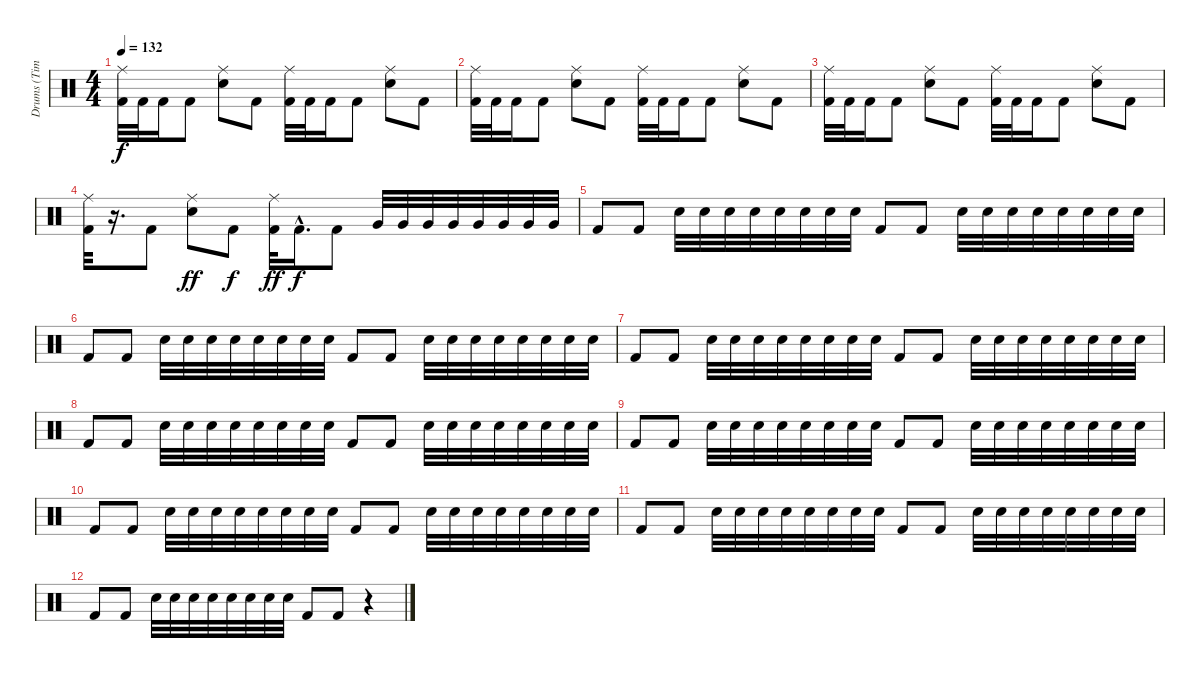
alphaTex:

\track ("Drums (Tim Alexander)" "Drums (Tim") {instrument percussion}
\staff {score}
\articulation defaults
\ts (4 4)
\tempo 132
\clef neutral
\ks c
("Ride (middle)" "Kick (hit) 2").32{dy f} "Kick (hit) 2".32 "Kick (hit) 2".16 "Kick (hit) 2".8 ("Ride (middle)" "Snare (hit) 2").8 "Kick (hit) 2".8 ("Ride (middle)" "Kick (hit) 2").32 "Kick (hit) 2".32 "Kick (hit) 2".16 "Kick (hit) 2".8 ("Ride (middle)" "Snare (hit) 2").8 "Kick (hit) 2".8 |
("Ride (middle)" "Kick (hit) 2").32 "Kick (hit) 2".32 "Kick (hit) 2".16 "Kick (hit) 2".8 ("Ride (middle)" "Snare (hit) 2").8 "Kick (hit) 2".8 ("Ride (middle)" "Kick (hit) 2").32 "Kick (hit) 2".32 "Kick (hit) 2".16 "Kick (hit) 2".8 ("Ride (middle)" "Snare (hit) 2").8 "Kick (hit) 2".8 |
("Ride (middle)" "Kick (hit) 2").32 "Kick (hit) 2".32 "Kick (hit) 2".16 "Kick (hit) 2".8 ("Ride (middle)" "Snare (hit) 2").8 "Kick (hit) 2".8 ("Ride (middle)" "Kick (hit) 2").32 "Kick (hit) 2".32 "Kick (hit) 2".16 "Kick (hit) 2".8 ("Ride (middle)" "Snare (hit) 2").8 "Kick (hit) 2".8 |
("Ride (middle)" "Kick (hit) 2").32 r.16{d} "Kick (hit) 2".8 ("Ride (middle)" "Snare (hit) 2").8{dy ff} "Kick (hit) 2".8{dy f} ("Ride (middle)" "Kick (hit) 2").32{dy ff} "Kick (hit) 2"{hac}.16{d dy f} "Kick (hit) 2".8 "Very Low Tom (hit)".32 "Very Low Tom (hit)".32 "Very Low Tom (hit)".32 "Very Low Tom (hit)".32 "Very Low Tom (hit)".32 "Very Low Tom (hit)".32 "Very Low Tom (hit)".32 "Very Low Tom (hit)".32 |
"Kick (hit) 2".8 "Kick (hit) 2".8 "Snare (hit) 2".32 "Snare (hit) 2".32 "Snare (hit) 2".32 "Snare (hit) 2".32 "Snare (hit) 2".32 "Snare (hit) 2".32 "Snare (hit) 2".32 "Snare (hit) 2".32 "Kick (hit) 2".8 "Kick (hit) 2".8 "Snare (hit) 2".32 "Snare (hit) 2".32 "Snare (hit) 2".32 "Snare (hit) 2".32 "Snare (hit) 2".32 "Snare (hit) 2".32 "Snare (hit) 2".32 "Snare (hit) 2".32 |
"Kick (hit) 2".8 "Kick (hit) 2".8 "Snare (hit) 2".32 "Snare (hit) 2".32 "Snare (hit) 2".32 "Snare (hit) 2".32 "Snare (hit) 2".32 "Snare (hit) 2".32 "Snare (hit) 2".32 "Snare (hit) 2".32 "Kick (hit) 2".8 "Kick (hit) 2".8 "Snare (hit) 2".32 "Snare (hit) 2".32 "Snare (hit) 2".32 "Snare (hit) 2".32 "Snare (hit) 2".32 "Snare (hit) 2".32 "Snare (hit) 2".32 "Snare (hit) 2".32 |
"Kick (hit) 2".8 "Kick (hit) 2".8 "Snare (hit) 2".32 "Snare (hit) 2".32 "Snare (hit) 2".32 "Snare (hit) 2".32 "Snare (hit) 2".32 "Snare (hit) 2".32 "Snare (hit) 2".32 "Snare (hit) 2".32 "Kick (hit) 2".8 "Kick (hit) 2".8 "Snare (hit) 2".32 "Snare (hit) 2".32 "Snare (hit) 2".32 "Snare (hit) 2".32 "Snare (hit) 2".32 "Snare (hit) 2".32 "Snare (hit) 2".32 "Snare (hit) 2".32 |
"Kick (hit) 2".8 "Kick (hit) 2".8 "Snare (hit) 2".32 "Snare (hit) 2".32 "Snare (hit) 2".32 "Snare (hit) 2".32 "Snare (hit) 2".32 "Snare (hit) 2".32 "Snare (hit) 2".32 "Snare (hit) 2".32 "Kick (hit) 2".8 "Kick (hit) 2".8 "Snare (hit) 2".32 "Snare (hit) 2".32 "Snare (hit) 2".32 "Snare (hit) 2".32 "Snare (hit) 2".32 "Snare (hit) 2".32 "Snare (hit) 2".32 "Snare (hit) 2".32 |
"Kick (hit) 2".8 "Kick (hit) 2".8 "Snare (hit) 2".32 "Snare (hit) 2".32 "Snare (hit) 2".32 "Snare (hit) 2".32 "Snare (hit) 2".32 "Snare (hit) 2".32 "Snare (hit) 2".32 "Snare (hit) 2".32 "Kick (hit) 2".8 "Kick (hit) 2".8 "Snare (hit) 2".32 "Snare (hit) 2".32 "Snare (hit) 2".32 "Snare (hit) 2".32 "Snare (hit) 2".32 "Snare (hit) 2".32 "Snare (hit) 2".32 "Snare (hit) 2".32 |
"Kick (hit) 2".8 "Kick (hit) 2".8 "Snare (hit) 2".32 "Snare (hit) 2".32 "Snare (hit) 2".32 "Snare (hit) 2".32 "Snare (hit) 2".32 "Snare (hit) 2".32 "Snare (hit) 2".32 "Snare (hit) 2".32 "Kick (hit) 2".8 "Kick (hit) 2".8 "Snare (hit) 2".32 "Snare (hit) 2".32 "Snare (hit) 2".32 "Snare (hit) 2".32 "Snare (hit) 2".32 "Snare (hit) 2".32 "Snare (hit) 2".32 "Snare (hit) 2".32 |
"Kick (hit) 2".8 "Kick (hit) 2".8 "Snare (hit) 2".32 "Snare (hit) 2".32 "Snare (hit) 2".32 "Snare (hit) 2".32 "Snare (hit) 2".32 "Snare (hit) 2".32 "Snare (hit) 2".32 "Snare (hit) 2".32 "Kick (hit) 2".8 "Kick (hit) 2".8 "Snare (hit) 2".32 "Snare (hit) 2".32 "Snare (hit) 2".32 "Snare (hit) 2".32 "Snare (hit) 2".32 "Snare (hit) 2".32 "Snare (hit) 2".32 "Snare (hit) 2".32 |
"Kick (hit) 2".8 "Kick (hit) 2".8 "Snare (hit) 2".32 "Snare (hit) 2".32 "Snare (hit) 2".32 "Snare (hit) 2".32 "Snare (hit) 2".32 "Snare (hit) 2".32 "Snare (hit) 2".32 "Snare (hit) 2".32 "Kick (hit) 2".8 "Kick (hit) 2".8 r.4
